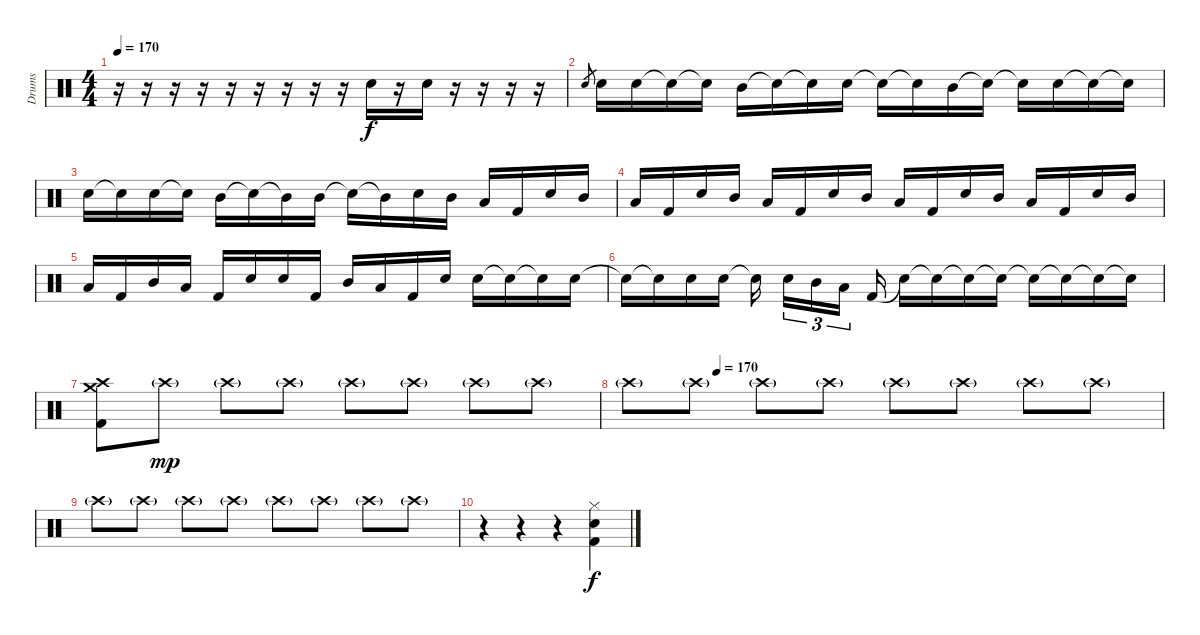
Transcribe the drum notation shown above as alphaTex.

\track ("Drums" "Drums") {instrument percussion}
\staff {score}
\articulation defaults
\ts (4 4)
\tempo 170
\clef neutral
\ks c
r.16{dy f} r.16 r.16 r.16 r.16 r.16 r.16 r.16 r.16 "Snare (hit) 2".16 r.16 "Snare (hit) 2".16 r.16 r.16 r.16 r.16 |
"Snare (hit) 2".8{gr} "Snare (hit) 2".16 "Snare (hit) 2".16 "Snare (hit)"{t}.16 "Snare (hit) 2"{t}.16 "Mid Tom (hit)".16 "Snare (hit)"{t}.16 "Snare (hit)"{t}.16 "Snare (hit) 2".16 "Snare (hit)"{t}.16 "Snare (hit) 2"{t}.16 "Mid Tom (hit)".16 "Snare (hit)"{t}.16 "Snare (hit)"{t}.16 "Snare (hit) 2".16 "Snare (hit)"{t}.16 "Snare (hit) 2"{t}.16 |
"Snare (hit) 2".16 "Snare (hit) 2"{t}.16 "Snare (hit) 2".16 "Snare (hit)"{t}.16 "Mid Tom (hit)".16 "Snare (hit)"{t}.16 "Mid Tom (hit)"{t}.16 "Mid Tom (hit)".16 "Snare (hit)"{t}.16 "Mid Tom (hit)"{t}.16 "Snare (hit) 2".16 "Mid Tom (hit)".16 "Low Tom (hit)".16 "Kick (hit) 2".16 "Snare (hit) 2".16 "Mid Tom (hit)".16 |
"Low Tom (hit)".16 "Kick (hit) 2".16 "Snare (hit) 2".16 "Mid Tom (hit)".16 "Low Tom (hit)".16 "Kick (hit) 2".16 "Snare (hit) 2".16 "Mid Tom (hit)".16 "Low Tom (hit)".16 "Kick (hit) 2".16 "Snare (hit) 2".16 "Mid Tom (hit)".16 "Low Tom (hit)".16 "Kick (hit) 2".16 "Snare (hit) 2".16 "Mid Tom (hit)".16 |
"Low Tom (hit)".16 "Kick (hit) 2".16 "Mid Tom (hit)".16 "Low Tom (hit)".16 "Kick (hit) 2".16 "Snare (hit) 2".16 "Snare (hit) 2".16 "Kick (hit) 2".16 "Mid Tom (hit)".16 "Low Tom (hit)".16 "Kick (hit) 2".16 "Snare (hit) 2".16 "Snare (hit) 2".16 "Snare (hit)"{t}.16 "Snare (hit)"{t}.16 "Snare (hit) 2".16 |
"Snare (hit)"{t}.16 "Snare (hit)"{t}.16 "Snare (hit) 2".16 "Snare (hit) 2".16 "Snare (hit)"{t}.16{beam splitsecondary} "Snare (hit) 2".16{tu (3 2)} "Mid Tom (hit)".16{tu (3 2)} "Low Tom (hit)".16{tu (3 2) beam splitsecondary} "Kick (hit) 2".16 "Snare (hit)"{t}.16 "Snare (hit)"{t}.16 "Snare (hit)"{t}.16 "Snare (hit)"{t}.16 "Snare (hit)"{t}.16 "Snare (hit)"{t}.16 "Snare (hit)"{t}.16 "Snare (hit)"{t}.16 |
("Crash high (hit)" "Crash medium (hit)" "Kick (hit) 2").8 "Crash high (hit)"{g}.8{dy mp} "Crash high (hit)"{g}.8 "Crash high (hit)"{g}.8 "Crash high (hit)"{g}.8 "Crash high (hit)"{g}.8 "Crash high (hit)"{g}.8 "Crash high (hit)"{g}.8 |
\tempo (170 0.16666666666666666)
"Crash high (hit)"{g}.8 "Crash high (hit)"{g}.8 "Crash high (hit)"{g}.8 "Crash high (hit)"{g}.8 "Crash high (hit)"{g}.8 "Crash high (hit)"{g}.8 "Crash high (hit)"{g}.8 "Crash high (hit)"{g}.8 |
"Crash high (hit)"{g}.8 "Crash high (hit)"{g}.8 "Crash high (hit)"{g}.8 "Crash high (hit)"{g}.8 "Crash high (hit)"{g}.8 "Crash high (hit)"{g}.8 "Crash high (hit)"{g}.8 "Crash high (hit)"{g}.8 |
r.4 r.4 r.4 ("Hi-Hat (closed)" "Snare (hit) 2" "Kick (hit) 2").4{dy f}
